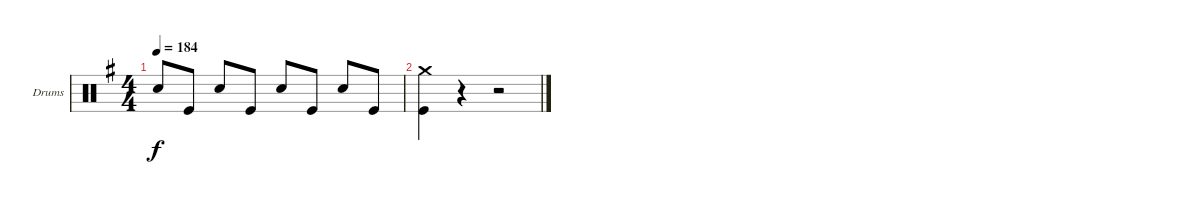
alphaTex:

\defaultSystemsLayout 4
\bracketExtendMode groupsimilarinstruments
\firstSystemTrackNameOrientation horizontal
\otherSystemsTrackNameOrientation horizontal
\track ("Drumkit" "Drums") {instrument percussion}
\staff {score}
\articulation defaults
\ts (4 4)
\tempo 184
\clef neutral
\ks g "Snare (hit) 2".8{dy f} "Kick (hit)".8 "Snare (hit) 2".8 "Kick (hit)".8 "Snare (hit) 2".8 "Kick (hit)".8 "Snare (hit) 2".8 "Kick (hit)".8
|
("Crash medium (hit)" "Kick (hit)").4 r.4 r.2
